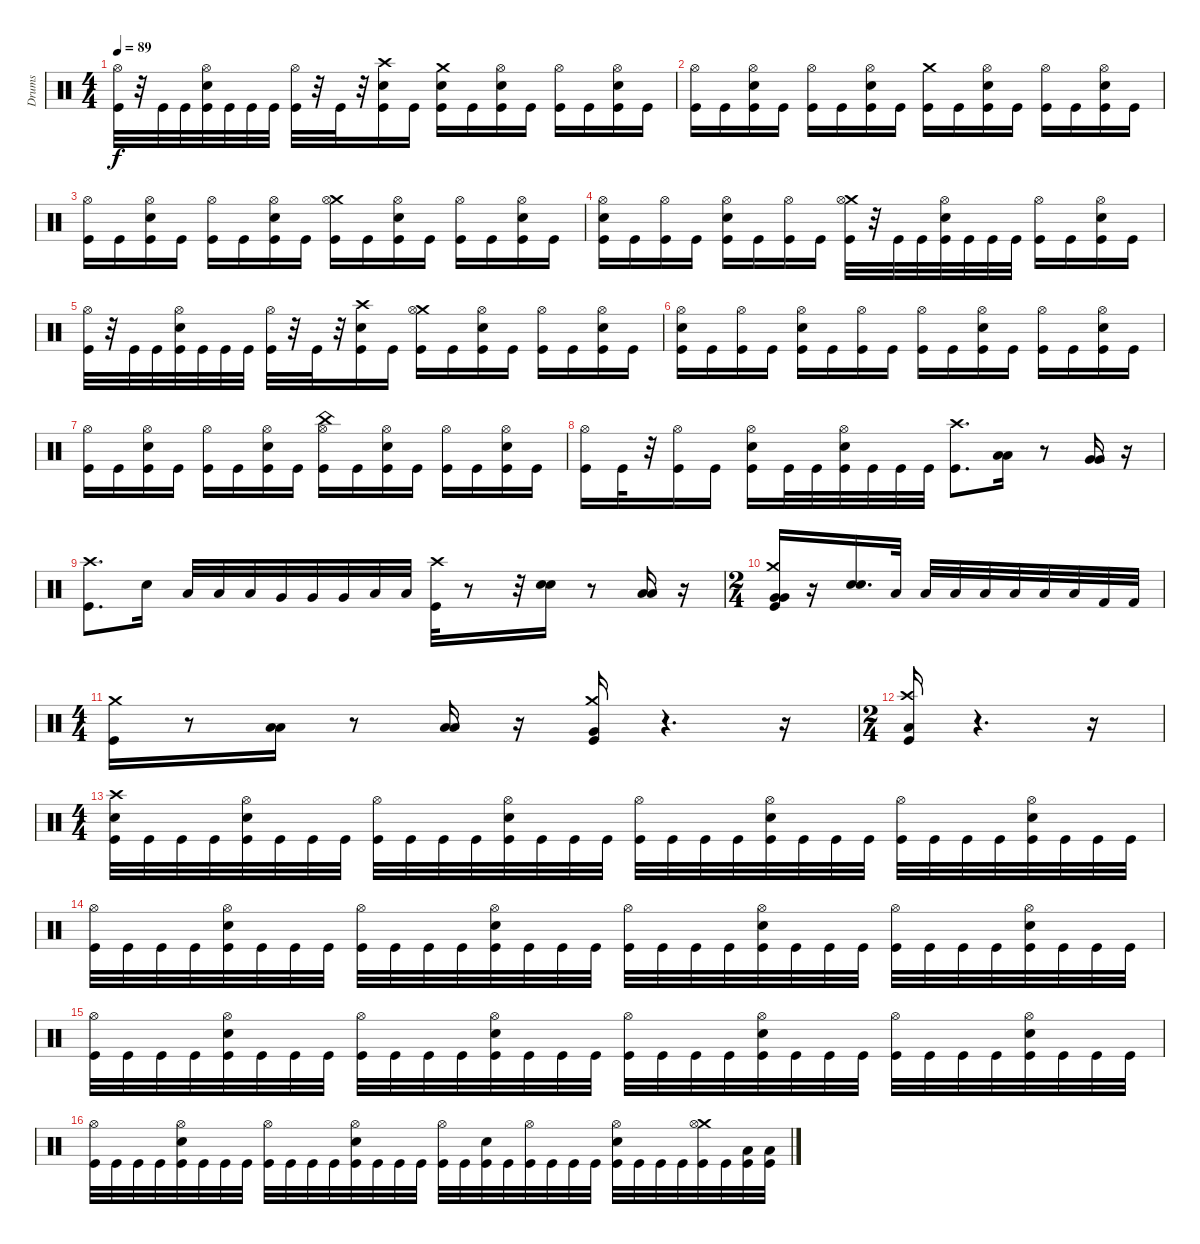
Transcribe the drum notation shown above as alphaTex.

\track ("Drums" "Drums") {instrument percussion}
\staff {score}
\articulation defaults
\ts (4 4)
\tempo 89
\clef neutral
\ks c
("Hi-Hat (open)" "Kick (hit)").32{dy f} r.32 "Kick (hit)".32 "Kick (hit)".32 ("Snare (hit) 2" "Hi-Hat (open)" "Kick (hit)").32 "Kick (hit)".32 "Kick (hit)".32 "Kick (hit)".32 ("Hi-Hat (open)" "Kick (hit)").32 r.32 "Kick (hit)".32 r.32 ("Crash high (hit)" "Snare (hit) 2" "Kick (hit)").16 "Kick (hit)".16 ("Kick (hit)" "Snare (hit) 2" "Crash medium (hit)").16 "Kick (hit)".16 ("Hi-Hat (open)" "Snare (hit) 2" "Kick (hit)").16 "Kick (hit)".16 ("Kick (hit)" "Hi-Hat (open)").16 "Kick (hit)".16 ("Snare (hit) 2" "Kick (hit)" "Hi-Hat (open)").16 "Kick (hit)".16 |
("Kick (hit)" "Hi-Hat (open)").16 "Kick (hit)".16 ("Kick (hit)" "Snare (hit) 2" "Hi-Hat (open)").16 "Kick (hit)".16 ("Kick (hit)" "Hi-Hat (open)").16 "Kick (hit)".16 ("Kick (hit)" "Snare (hit) 2" "Hi-Hat (open)").16 "Kick (hit)".16 ("Kick (hit)" "Crash medium (hit)").16 "Kick (hit)".16 ("Hi-Hat (open)" "Snare (hit) 2" "Kick (hit)").16 "Kick (hit)".16 ("Kick (hit)" "Hi-Hat (open)").16 "Kick (hit)".16 ("Snare (hit) 2" "Kick (hit)" "Hi-Hat (open)").16 "Kick (hit)".16 |
("Kick (hit)" "Hi-Hat (open)").16 "Kick (hit)".16 ("Kick (hit)" "Snare (hit) 2" "Hi-Hat (open)").16 "Kick (hit)".16 ("Kick (hit)" "Hi-Hat (open)").16 "Kick (hit)".16 ("Kick (hit)" "Snare (hit) 2" "Hi-Hat (open)").16 "Kick (hit)".16 ("Crash medium (hit)" "Hi-Hat (open)" "Kick (hit)").16 "Kick (hit)".16 ("Hi-Hat (open)" "Snare (hit) 2" "Kick (hit)").16 "Kick (hit)".16 ("Hi-Hat (open)" "Kick (hit)").16 "Kick (hit)".16 ("Hi-Hat (open)" "Snare (hit) 2" "Kick (hit)").16 "Kick (hit)".16 |
("Snare (hit) 2" "Hi-Hat (open)" "Kick (hit)").16 "Kick (hit)".16 ("Hi-Hat (open)" "Kick (hit)").16 "Kick (hit)".16 ("Snare (hit) 2" "Hi-Hat (open)" "Kick (hit)").16 "Kick (hit)".16 ("Hi-Hat (open)" "Kick (hit)").16 "Kick (hit)".16 ("Crash medium (hit)" "Hi-Hat (open)" "Kick (hit)").32 r.32 "Kick (hit)".32 "Kick (hit)".32 ("Snare (hit) 2" "Hi-Hat (open)" "Kick (hit)").32 "Kick (hit)".32 "Kick (hit)".32 "Kick (hit)".32 ("Hi-Hat (open)" "Kick (hit)").16 "Kick (hit)".16 ("Snare (hit) 2" "Hi-Hat (open)" "Kick (hit)").16 "Kick (hit)".16 |
("Hi-Hat (open)" "Kick (hit)").32 r.32 "Kick (hit)".32 "Kick (hit)".32 ("Snare (hit) 2" "Hi-Hat (open)" "Kick (hit)").32 "Kick (hit)".32 "Kick (hit)".32 "Kick (hit)".32 ("Hi-Hat (open)" "Kick (hit)").32 r.32 "Kick (hit)".32 r.32 ("Crash high (hit)" "Snare (hit) 2" "Kick (hit)").16 "Kick (hit)".16 ("Crash medium (hit)" "Hi-Hat (open)" "Kick (hit)").16 "Kick (hit)".16 ("Hi-Hat (open)" "Snare (hit) 2" "Kick (hit)").16 "Kick (hit)".16 ("Hi-Hat (open)" "Kick (hit)").16 "Kick (hit)".16 ("Hi-Hat (open)" "Snare (hit) 2" "Kick (hit)").16 "Kick (hit)".16 |
("Snare (hit) 2" "Hi-Hat (open)" "Kick (hit)").16 "Kick (hit)".16 ("Hi-Hat (open)" "Kick (hit)").16 "Kick (hit)".16 ("Snare (hit) 2" "Hi-Hat (open)" "Kick (hit)").16 "Kick (hit)".16 ("Hi-Hat (open)" "Kick (hit)").16 "Kick (hit)".16 ("Hi-Hat (open)" "Kick (hit)").16 "Kick (hit)".16 ("Hi-Hat (open)" "Snare (hit) 2" "Kick (hit)").16 "Kick (hit)".16 ("Hi-Hat (open)" "Kick (hit)").16 "Kick (hit)".16 ("Hi-Hat (open)" "Snare (hit) 2" "Kick (hit)").16 "Kick (hit)".16 |
("Hi-Hat (open)" "Kick (hit)").16 "Kick (hit)".16 ("Snare (hit) 2" "Hi-Hat (open)" "Kick (hit)").16 "Kick (hit)".16 ("Hi-Hat (open)" "Kick (hit)").16 "Kick (hit)".16 ("Snare (hit) 2" "Hi-Hat (open)" "Kick (hit)").16 "Kick (hit)".16 ("China (hit)" "Hi-Hat (open)" "Kick (hit)").16 "Kick (hit)".16 ("Hi-Hat (open)" "Snare (hit) 2" "Kick (hit)").16 "Kick (hit)".16 ("Hi-Hat (open)" "Kick (hit)").16 "Kick (hit)".16 ("Hi-Hat (open)" "Snare (hit) 2" "Kick (hit)").16 "Kick (hit)".16 |
("Hi-Hat (open)" "Kick (hit)").16 "Kick (hit)".32 r.32 ("Hi-Hat (open)" "Kick (hit)").16 "Kick (hit)".16 ("Electric Snare (hit)" "Hi-Hat (open)" "Kick (hit)").16 "Kick (hit)".32 "Kick (hit)".32 ("Kick (hit)" "Snare (hit) 2" "Hi-Hat (open)").32 "Kick (hit)".32 "Kick (hit)".32 "Kick (hit)".32 ("Kick (hit)" "Crash high (hit)").8{d} ("Low Tom (hit)" "Low Tom (hit)").16 r.8 ("Very Low Tom (hit)" "Very Low Tom (hit)").16 r.16 |
("Crash high (hit)" "Kick (hit)").8{d} "Electric Snare (hit)".16 "Low Tom (hit)".32 "Low Tom (hit)".32 "Low Tom (hit)".32 "Very Low Tom (hit)".32 "Very Low Tom (hit)".32 "Very Low Tom (hit)".32 "Low Floor Tom (hit)".32 "Low Floor Tom (hit)".32 ("Crash high (hit)" "Kick (hit)").32 r.8 r.32 ("Snare (hit) 2" "Snare (hit) 2").16 r.8 ("Low Tom (hit)" "Low Tom (hit)").16 r.16 |
\ts (2 4)
("Kick (hit)" "Crash medium (hit)" "Very Low Tom (hit)" "Very Low Tom (hit)").16 r.16 ("Snare (hit) 2" "Snare (hit) 2").16{d} "Low Tom (hit)".32 "Low Tom (hit)".32 "Low Tom (hit)".32 "Low Tom (hit)".32 "Low Floor Tom (hit)".32 "Low Floor Tom (hit)".32 "Low Floor Tom (hit)".32 "Kick (hit) 2".32 "Kick (hit) 2".32 |
\ts (4 4)
("Crash medium (hit)" "Kick (hit)").16 r.8 ("Low Tom (hit)" "Low Tom (hit)").16 r.8 ("Low Floor Tom (hit)" "Low Floor Tom (hit)").16 r.16 ("Crash medium (hit)" "Very Low Tom (hit)" "Kick (hit)").16 r.4{d} r.16 |
\ts (2 4)
("Low Tom (hit)" "Crash high (hit)" "Kick (hit)").16 r.4{d} r.16 |
\ts (4 4)
("Snare (hit) 2" "Crash high (hit)" "Kick (hit)").32 "Kick (hit)".32 "Kick (hit)".32 "Kick (hit)".32 ("Snare (hit) 2" "Hi-Hat (open)" "Kick (hit)").32 "Kick (hit)".32 "Kick (hit)".32 "Kick (hit)".32 ("Hi-Hat (open)" "Kick (hit)").32 "Kick (hit)".32 "Kick (hit)".32 "Kick (hit)".32 ("Snare (hit) 2" "Hi-Hat (open)" "Kick (hit)").32 "Kick (hit)".32 "Kick (hit)".32 "Kick (hit)".32 ("Hi-Hat (open)" "Kick (hit)").32 "Kick (hit)".32 "Kick (hit)".32 "Kick (hit)".32 ("Snare (hit) 2" "Hi-Hat (open)" "Kick (hit)").32 "Kick (hit)".32 "Kick (hit)".32 "Kick (hit)".32 ("Hi-Hat (open)" "Kick (hit)").32 "Kick (hit)".32 "Kick (hit)".32 "Kick (hit)".32 ("Snare (hit) 2" "Hi-Hat (open)" "Kick (hit)").32 "Kick (hit)".32 "Kick (hit)".32 "Kick (hit)".32 |
("Hi-Hat (open)" "Kick (hit)").32 "Kick (hit)".32 "Kick (hit)".32 "Kick (hit)".32 ("Snare (hit) 2" "Hi-Hat (open)" "Kick (hit)").32 "Kick (hit)".32 "Kick (hit)".32 "Kick (hit)".32 ("Hi-Hat (open)" "Kick (hit)").32 "Kick (hit)".32 "Kick (hit)".32 "Kick (hit)".32 ("Snare (hit) 2" "Hi-Hat (open)" "Kick (hit)").32 "Kick (hit)".32 "Kick (hit)".32 "Kick (hit)".32 ("Hi-Hat (open)" "Kick (hit)").32 "Kick (hit)".32 "Kick (hit)".32 "Kick (hit)".32 ("Snare (hit) 2" "Hi-Hat (open)" "Kick (hit)").32 "Kick (hit)".32 "Kick (hit)".32 "Kick (hit)".32 ("Hi-Hat (open)" "Kick (hit)").32 "Kick (hit)".32 "Kick (hit)".32 "Kick (hit)".32 ("Snare (hit) 2" "Hi-Hat (open)" "Kick (hit)").32 "Kick (hit)".32 "Kick (hit)".32 "Kick (hit)".32 |
("Hi-Hat (open)" "Kick (hit)").32 "Kick (hit)".32 "Kick (hit)".32 "Kick (hit)".32 ("Snare (hit) 2" "Hi-Hat (open)" "Kick (hit)").32 "Kick (hit)".32 "Kick (hit)".32 "Kick (hit)".32 ("Hi-Hat (open)" "Kick (hit)").32 "Kick (hit)".32 "Kick (hit)".32 "Kick (hit)".32 ("Snare (hit) 2" "Hi-Hat (open)" "Kick (hit)").32 "Kick (hit)".32 "Kick (hit)".32 "Kick (hit)".32 ("Hi-Hat (open)" "Kick (hit)").32 "Kick (hit)".32 "Kick (hit)".32 "Kick (hit)".32 ("Snare (hit) 2" "Hi-Hat (open)" "Kick (hit)").32 "Kick (hit)".32 "Kick (hit)".32 "Kick (hit)".32 ("Hi-Hat (open)" "Kick (hit)").32 "Kick (hit)".32 "Kick (hit)".32 "Kick (hit)".32 ("Snare (hit) 2" "Hi-Hat (open)" "Kick (hit)").32 "Kick (hit)".32 "Kick (hit)".32 "Kick (hit)".32 |
("Hi-Hat (open)" "Kick (hit)").32 "Kick (hit)".32 "Kick (hit)".32 "Kick (hit)".32 ("Snare (hit) 2" "Hi-Hat (open)" "Kick (hit)").32 "Kick (hit)".32 "Kick (hit)".32 "Kick (hit)".32 ("Hi-Hat (open)" "Kick (hit)").32 "Kick (hit)".32 "Kick (hit)".32 "Kick (hit)".32 ("Snare (hit) 2" "Hi-Hat (open)" "Kick (hit)").32 "Kick (hit)".32 "Kick (hit)".32 "Kick (hit)".32 ("Hi-Hat (open)" "Kick (hit)").32 "Kick (hit)".32 ("Snare (hit) 2" "Kick (hit)").32 "Kick (hit)".32 ("Hi-Hat (open)" "Kick (hit)").32 "Kick (hit)".32 "Kick (hit)".32 "Kick (hit)".32 ("Snare (hit) 2" "Hi-Hat (open)" "Kick (hit)").32 "Kick (hit)".32 "Kick (hit)".32 "Kick (hit)".32 ("Crash medium (hit)" "Hi-Hat (open)" "Kick (hit)").32 "Kick (hit)".32 ("Low Tom (hit)" "Kick (hit)").32 ("Low Tom (hit)" "Kick (hit)").32
